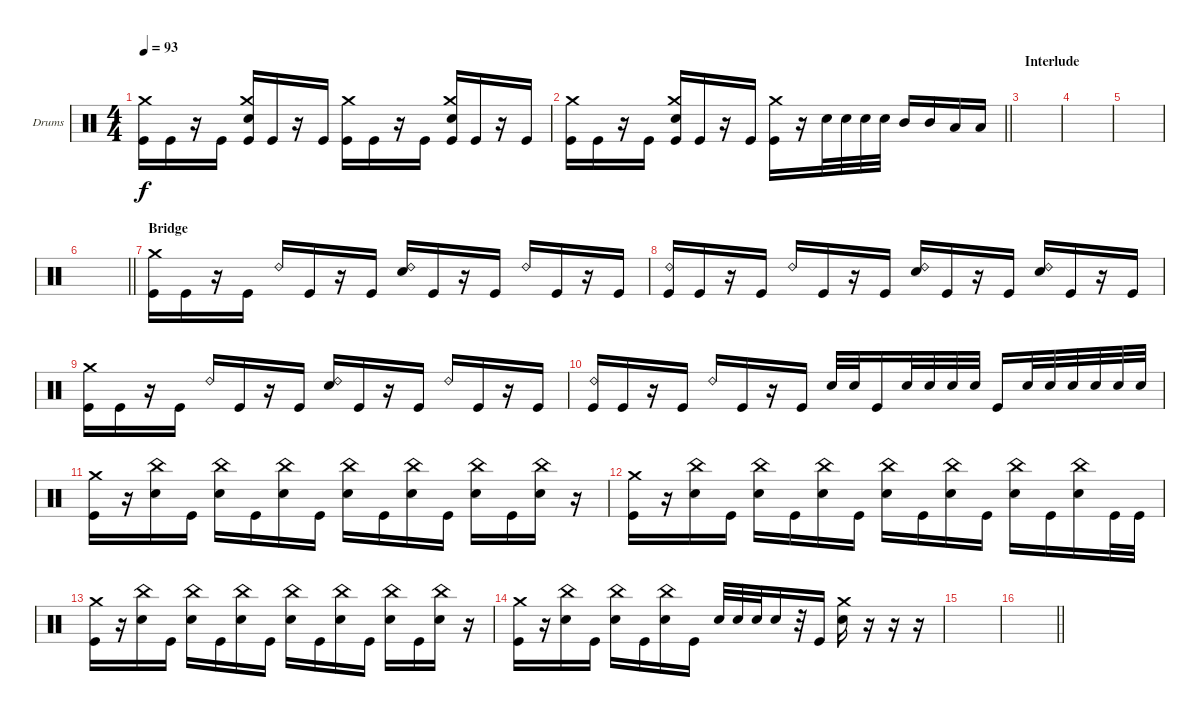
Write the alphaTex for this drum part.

\bracketExtendMode groupsimilarinstruments
\firstSystemTrackNameOrientation horizontal
\otherSystemsTrackNameOrientation horizontal
\track ("Drumkit" "Drums") {instrument percussion}
\staff {score}
\articulation defaults
\ts (4 4)
\tempo 93
\clef neutral
\scale
0.333333
\ks c
("Kick (hit)" "Crash medium (hit)").16{dy f} "Kick (hit)".16 r.16 "Kick (hit)".16 ("Kick (hit)" "Crash medium (hit)" "Snare (hit) 2").16 "Kick (hit)".16 r.16 "Kick (hit)".16 ("Kick (hit)" "Crash medium (hit)").16 "Kick (hit)".16 r.16 "Kick (hit)".16 ("Kick (hit)" "Crash medium (hit)" "Snare (hit) 2").16 "Kick (hit)".16 r.16 "Kick (hit)".16 |
\scale
0.333333
\barLineRight lightlight
("Kick (hit)" "Crash medium (hit)").16 "Kick (hit)".16 r.16 "Kick (hit)".16 ("Kick (hit)" "Crash medium (hit)" "Snare (hit) 2").16 "Kick (hit)".16 r.16 "Kick (hit)".16 ("Crash medium (hit)" "Kick (hit)").16 r.16 "Snare (hit) 2".32 "Snare (hit) 2".32 "Snare (hit) 2".32 "Snare (hit) 2".32 "Mid Tom (hit)".16 "Mid Tom (hit)".16 "Low Tom (hit)".16 "Low Tom (hit)".16 |
\section ("" "Interlude")
\scale
0.333333 |
\scale
0.333333 |
\scale
0.333333 |
\scale
0.333333
\barLineRight lightlight
|
\section ("" "Bridge")
\scale
0.333333 ("Kick (hit)" "Crash medium (hit)").16 "Kick (hit)".16 r.16 "Kick (hit)".16 "Ride (bell) 2".16 "Kick (hit)".16 r.16 "Kick (hit)".16 ("Snare (hit) 2" "Ride (bell) 2").16 "Kick (hit)".16 r.16 "Kick (hit)".16 "Ride (bell) 2".16 "Kick (hit)".16 r.16 "Kick (hit)".16 |
\scale
0.333333 ("Kick (hit)" "Ride (bell) 2").16 "Kick (hit)".16 r.16 "Kick (hit)".16 "Ride (bell) 2".16 "Kick (hit)".16 r.16 "Kick (hit)".16 ("Snare (hit) 2" "Ride (bell) 2").16 "Kick (hit)".16 r.16 "Kick (hit)".16 ("Snare (hit) 2" "Ride (bell) 2").16 "Kick (hit)".16 r.16 "Kick (hit)".16 |
\scale
0.333333 ("Kick (hit)" "Crash medium (hit)").16 "Kick (hit)".16 r.16 "Kick (hit)".16 "Ride (bell) 2".16 "Kick (hit)".16 r.16 "Kick (hit)".16 ("Snare (hit) 2" "Ride (bell) 2").16 "Kick (hit)".16 r.16 "Kick (hit)".16 "Ride (bell) 2".16 "Kick (hit)".16 r.16 "Kick (hit)".16 |
\scale
0.333333 ("Kick (hit)" "Ride (bell) 2").16 "Kick (hit)".16 r.16 "Kick (hit)".16 "Ride (bell) 2".16 "Kick (hit)".16 r.16 "Kick (hit)".16 "Snare (hit) 2".32 "Snare (hit) 2".32 "Kick (hit)".16 "Snare (hit) 2".32 "Snare (hit) 2".32 "Snare (hit) 2".32 "Snare (hit) 2".32 "Kick (hit)".16 "Snare (hit) 2".32 "Snare (hit) 2".32 "Snare (hit) 2".32 "Snare (hit) 2".32 "Snare (hit) 2".32 "Snare (hit) 2".32 |
\scale
0.333333 ("Kick (hit)" "Crash medium (hit)").16 r.16 ("Snare (hit) 2" "China (hit)").16 "Kick (hit)".16 ("Snare (hit) 2" "China (hit)").16 "Kick (hit)".16 ("Snare (hit) 2" "China (hit)").16 "Kick (hit)".16 ("Snare (hit) 2" "China (hit)").16 "Kick (hit)".16 ("Snare (hit) 2" "China (hit)").16 "Kick (hit)".16 ("Snare (hit) 2" "China (hit)").16 "Kick (hit)".16 ("Snare (hit) 2" "China (hit)").16 r.16 |
\scale
0.333333 ("Kick (hit)" "Crash medium (hit)").16 r.16 ("Snare (hit) 2" "China (hit)").16 "Kick (hit)".16 ("Snare (hit) 2" "China (hit)").16 "Kick (hit)".16 ("Snare (hit) 2" "China (hit)").16 "Kick (hit)".16 ("Snare (hit) 2" "China (hit)").16 "Kick (hit)".16 ("Snare (hit) 2" "China (hit)").16 "Kick (hit)".16 ("Snare (hit) 2" "China (hit)").16 "Kick (hit)".16 ("Snare (hit) 2" "China (hit)").16 "Kick (hit)".32 "Kick (hit)".32 |
\scale
0.333333 ("Kick (hit)" "Crash medium (hit)").16 r.16 ("Snare (hit) 2" "China (hit)").16 "Kick (hit)".16 ("Snare (hit) 2" "China (hit)").16 "Kick (hit)".16 ("Snare (hit) 2" "China (hit)").16 "Kick (hit)".16 ("Snare (hit) 2" "China (hit)").16 "Kick (hit)".16 ("Snare (hit) 2" "China (hit)").16 "Kick (hit)".16 ("Snare (hit) 2" "China (hit)").16 "Kick (hit)".16 ("Snare (hit) 2" "China (hit)").16 r.16 |
\scale
0.333333 ("Kick (hit)" "Crash medium (hit)").16 r.16 ("Snare (hit) 2" "China (hit)").16 "Kick (hit)".16 ("Snare (hit) 2" "China (hit)").16 "Kick (hit)".16 ("Snare (hit) 2" "China (hit)").16 "Kick (hit)".16 "Snare (hit) 2".32 "Snare (hit) 2".32 "Snare (hit) 2".32 "Snare (hit) 2".16 r.32 "Kick (hit)".16 ("Snare (hit) 2" "Crash medium (hit)").16 r.16 r.16 r.16 |
\scale
0.333333 |
\scale
0.333333
\barLineRight lightlight
